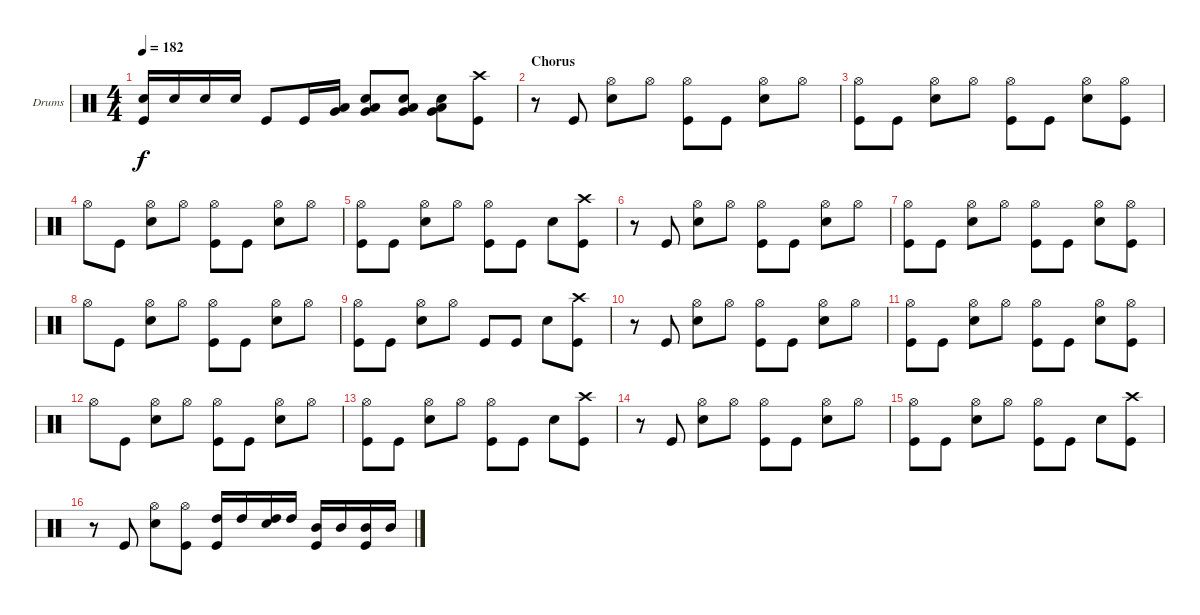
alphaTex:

\defaultSystemsLayout 4
\bracketExtendMode groupsimilarinstruments
\firstSystemTrackNameOrientation horizontal
\otherSystemsTrackNameOrientation horizontal
\track ("Drumkit" "Drums") {instrument percussion}
\staff {score}
\articulation defaults
\ts (4 4)
\tempo 182
\clef neutral
\ks c
("Snare (hit) 2" "Kick (hit)").16{dy f} "Snare (hit) 2".16 "Snare (hit) 2".16 "Snare (hit) 2".16 "Kick (hit)".8 "Kick (hit)".16 ("Low Tom (hit)" "Very Low Tom (hit)").16 ("Snare (hit) 2" "Low Tom (hit)" "Very Low Tom (hit)").8 ("Snare (hit) 2" "Low Tom (hit)" "Very Low Tom (hit)").8 ("Snare (hit) 2" "Low Tom (hit)" "Very Low Tom (hit)").8 ("Kick (hit)" "Crash high (hit)").8 |
\section ("" "Chorus")
r.8 "Kick (hit)".8 ("Snare (hit) 2" "Hi-Hat (open)").8 "Hi-Hat (open)".8 ("Kick (hit)" "Hi-Hat (open)").8 "Kick (hit)".8 ("Snare (hit) 2" "Hi-Hat (open)").8 "Hi-Hat (open)".8 |
("Kick (hit)" "Hi-Hat (open)").8 "Kick (hit)".8 ("Snare (hit) 2" "Hi-Hat (open)").8 "Hi-Hat (open)".8 ("Kick (hit)" "Hi-Hat (open)").8 "Kick (hit)".8 ("Snare (hit) 2" "Hi-Hat (open)").8 ("Kick (hit)" "Hi-Hat (open)").8 |
"Hi-Hat (open)".8 "Kick (hit)".8 ("Snare (hit) 2" "Hi-Hat (open)").8 "Hi-Hat (open)".8 ("Kick (hit)" "Hi-Hat (open)").8 "Kick (hit)".8 ("Snare (hit) 2" "Hi-Hat (open)").8 "Hi-Hat (open)".8 |
("Kick (hit)" "Hi-Hat (open)").8 "Kick (hit)".8 ("Snare (hit) 2" "Hi-Hat (open)").8 "Hi-Hat (open)".8 ("Kick (hit)" "Hi-Hat (open)").8 "Kick (hit)".8 "Snare (hit) 2".8 ("Kick (hit)" "Crash high (hit)").8 |
r.8 "Kick (hit)".8 ("Snare (hit) 2" "Hi-Hat (open)").8 "Hi-Hat (open)".8 ("Kick (hit)" "Hi-Hat (open)").8 "Kick (hit)".8 ("Snare (hit) 2" "Hi-Hat (open)").8 "Hi-Hat (open)".8 |
("Kick (hit)" "Hi-Hat (open)").8 "Kick (hit)".8 ("Snare (hit) 2" "Hi-Hat (open)").8 "Hi-Hat (open)".8 ("Kick (hit)" "Hi-Hat (open)").8 "Kick (hit)".8 ("Snare (hit) 2" "Hi-Hat (open)").8 ("Kick (hit)" "Hi-Hat (open)").8 |
"Hi-Hat (open)".8 "Kick (hit)".8 ("Snare (hit) 2" "Hi-Hat (open)").8 "Hi-Hat (open)".8 ("Kick (hit)" "Hi-Hat (open)").8 "Kick (hit)".8 ("Snare (hit) 2" "Hi-Hat (open)").8 "Hi-Hat (open)".8 |
("Kick (hit)" "Hi-Hat (open)").8 "Kick (hit)".8 ("Snare (hit) 2" "Hi-Hat (open)").8 "Hi-Hat (open)".8 "Kick (hit)".8 "Kick (hit)".8 "Snare (hit) 2".8 ("Kick (hit)" "Crash high (hit)").8 |
r.8 "Kick (hit)".8 ("Snare (hit) 2" "Hi-Hat (open)").8 "Hi-Hat (open)".8 ("Kick (hit)" "Hi-Hat (open)").8 "Kick (hit)".8 ("Snare (hit) 2" "Hi-Hat (open)").8 "Hi-Hat (open)".8 |
("Kick (hit)" "Hi-Hat (open)").8 "Kick (hit)".8 ("Snare (hit) 2" "Hi-Hat (open)").8 "Hi-Hat (open)".8 ("Kick (hit)" "Hi-Hat (open)").8 "Kick (hit)".8 ("Snare (hit) 2" "Hi-Hat (open)").8 ("Kick (hit)" "Hi-Hat (open)").8 |
"Hi-Hat (open)".8 "Kick (hit)".8 ("Snare (hit) 2" "Hi-Hat (open)").8 "Hi-Hat (open)".8 ("Kick (hit)" "Hi-Hat (open)").8 "Kick (hit)".8 ("Snare (hit) 2" "Hi-Hat (open)").8 "Hi-Hat (open)".8 |
("Kick (hit)" "Hi-Hat (open)").8 "Kick (hit)".8 ("Snare (hit) 2" "Hi-Hat (open)").8 "Hi-Hat (open)".8 ("Kick (hit)" "Hi-Hat (open)").8 "Kick (hit)".8 "Snare (hit) 2".8 ("Kick (hit)" "Crash high (hit)").8 |
r.8 "Kick (hit)".8 ("Snare (hit) 2" "Hi-Hat (open)").8 "Hi-Hat (open)".8 ("Kick (hit)" "Hi-Hat (open)").8 "Kick (hit)".8 ("Snare (hit) 2" "Hi-Hat (open)").8 "Hi-Hat (open)".8 |
("Kick (hit)" "Hi-Hat (open)").8 "Kick (hit)".8 ("Snare (hit) 2" "Hi-Hat (open)").8 "Hi-Hat (open)".8 ("Kick (hit)" "Hi-Hat (open)").8 "Kick (hit)".8 "Snare (hit) 2".8 ("Kick (hit)" "Crash high (hit)").8 |
r.8 "Kick (hit)".8 ("Snare (hit) 2" "Hi-Hat (open)").8 ("Kick (hit)" "Hi-Hat (open)").8 ("High Tom (hit)" "Kick (hit)").16 "High Tom (hit)".16 ("High Tom (hit)" "Snare (hit) 2").16 "High Tom (hit)".16 ("Mid Tom (hit)" "Kick (hit)").16 "Mid Tom (hit)".16 ("Mid Tom (hit)" "Kick (hit)").16 "Mid Tom (hit)".16
